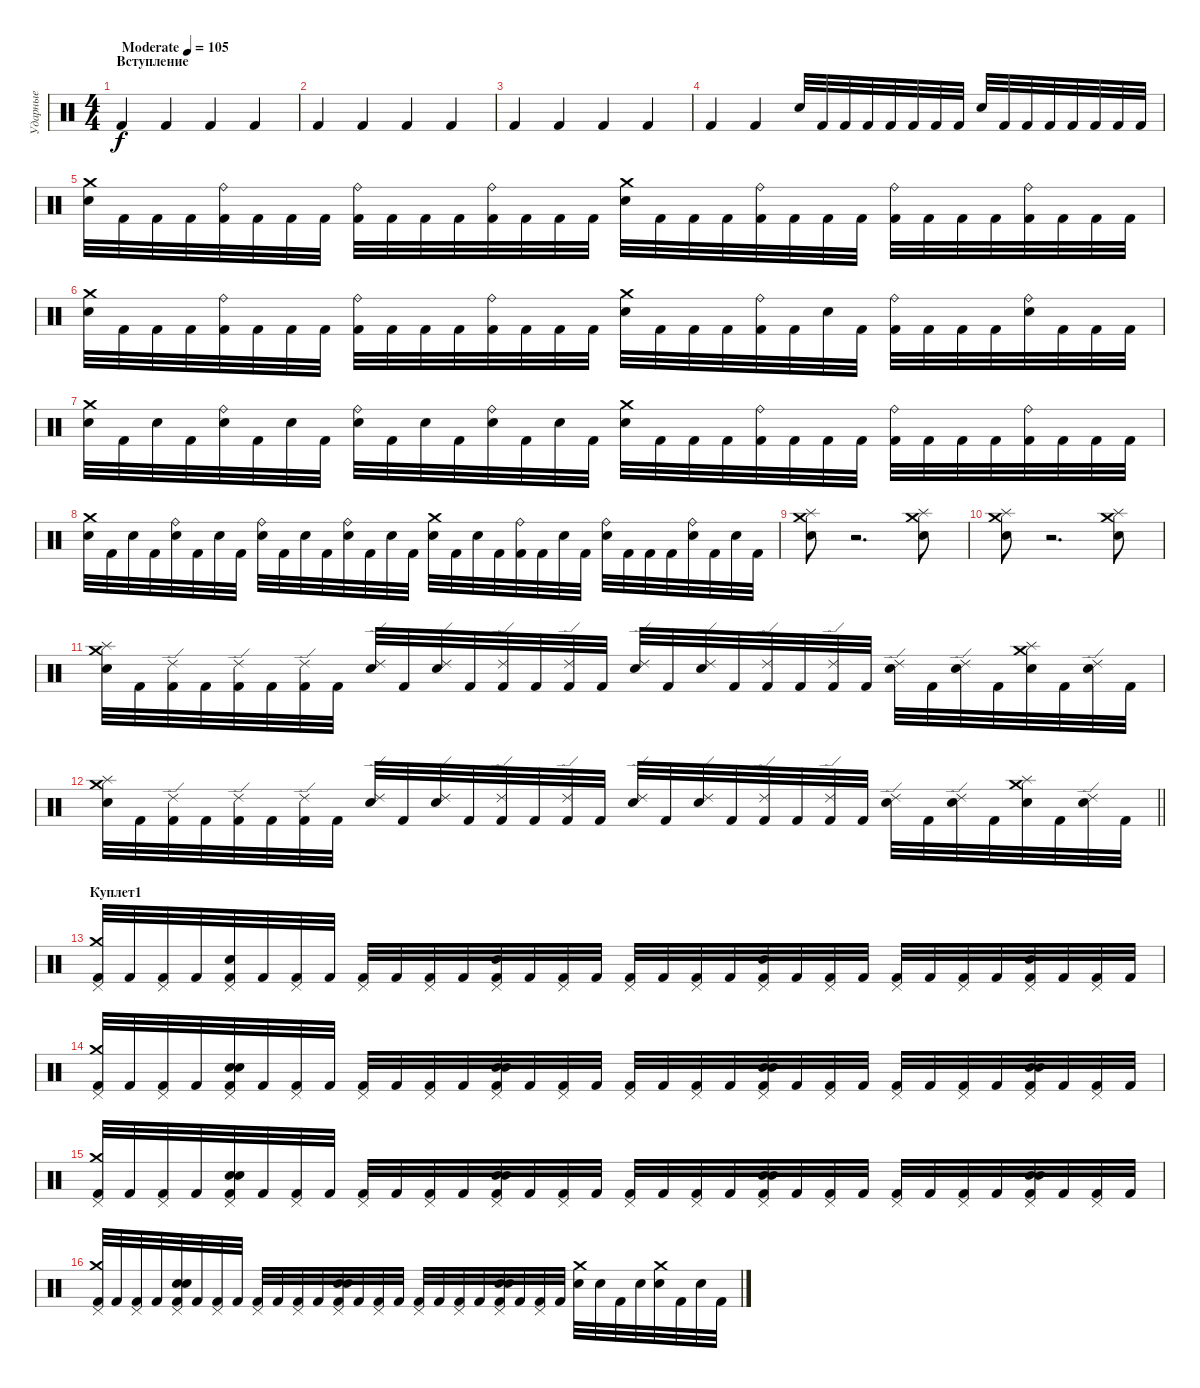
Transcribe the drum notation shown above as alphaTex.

\track ("Ударные" "Ударные") {instrument percussion}
\staff {score}
\articulation defaults
\ts (4 4)
\section ("" "Вступление")
\tempo (105 "Moderate")
\clef neutral
\ks c "Kick (hit) 2".4{dy f} "Kick (hit) 2".4 "Kick (hit) 2".4 "Kick (hit) 2".4
|
"Kick (hit) 2".4 "Kick (hit) 2".4 "Kick (hit) 2".4 "Kick (hit) 2".4 |
"Kick (hit) 2".4 "Kick (hit) 2".4 "Kick (hit) 2".4 "Kick (hit) 2".4 |
"Kick (hit) 2".4 "Kick (hit) 2".4 "Electric Snare (hit)".32 "Kick (hit) 2".32 "Kick (hit) 2".32 "Kick (hit) 2".32 "Kick (hit) 2".32 "Kick (hit) 2".32 "Kick (hit) 2".32 "Kick (hit) 2".32 "Electric Snare (hit)".32 "Kick (hit) 2".32 "Kick (hit) 2".32 "Kick (hit) 2".32 "Kick (hit) 2".32 "Kick (hit) 2".32 "Kick (hit) 2".32 "Kick (hit) 2".32 |
("Crash medium (hit)" "Electric Snare (hit)").32 "Kick (hit) 2".32 "Kick (hit) 2".32 "Kick (hit) 2".32 ("Ride (bell)" "Kick (hit) 2").32 "Kick (hit) 2".32 "Kick (hit) 2".32 "Kick (hit) 2".32 ("Ride (bell)" "Kick (hit) 2").32 "Kick (hit) 2".32 "Kick (hit) 2".32 "Kick (hit) 2".32 ("Ride (bell)" "Kick (hit) 2").32 "Kick (hit) 2".32 "Kick (hit) 2".32 "Kick (hit) 2".32 ("Crash medium (hit)" "Electric Snare (hit)").32 "Kick (hit) 2".32 "Kick (hit) 2".32 "Kick (hit) 2".32 ("Ride (bell)" "Kick (hit) 2").32 "Kick (hit) 2".32 "Kick (hit) 2".32 "Kick (hit) 2".32 ("Ride (bell)" "Kick (hit) 2").32 "Kick (hit) 2".32 "Kick (hit) 2".32 "Kick (hit) 2".32 ("Ride (bell)" "Kick (hit) 2").32 "Kick (hit) 2".32 "Kick (hit) 2".32 "Kick (hit) 2".32 |
("Crash medium (hit)" "Electric Snare (hit)").32 "Kick (hit) 2".32 "Kick (hit) 2".32 "Kick (hit) 2".32 ("Ride (bell)" "Kick (hit) 2").32 "Kick (hit) 2".32 "Kick (hit) 2".32 "Kick (hit) 2".32 ("Ride (bell)" "Kick (hit) 2").32 "Kick (hit) 2".32 "Kick (hit) 2".32 "Kick (hit) 2".32 ("Ride (bell)" "Kick (hit) 2").32 "Kick (hit) 2".32 "Kick (hit) 2".32 "Kick (hit) 2".32 ("Crash medium (hit)" "Electric Snare (hit)").32 "Kick (hit) 2".32 "Kick (hit) 2".32 "Kick (hit) 2".32 ("Ride (bell)" "Kick (hit) 2").32 "Kick (hit) 2".32 "Electric Snare (hit)".32 "Kick (hit) 2".32 ("Ride (bell)" "Kick (hit) 2").32 "Kick (hit) 2".32 "Kick (hit) 2".32 "Kick (hit) 2".32 ("Ride (bell)" "Electric Snare (hit)").32 "Kick (hit) 2".32 "Kick (hit) 2".32 "Kick (hit) 2".32 |
("Crash medium (hit)" "Electric Snare (hit)").32 "Kick (hit) 2".32 "Electric Snare (hit)".32 "Kick (hit) 2".32 ("Ride (bell)" "Electric Snare (hit)").32 "Kick (hit) 2".32 "Electric Snare (hit)".32 "Kick (hit) 2".32 ("Ride (bell)" "Electric Snare (hit)").32 "Kick (hit) 2".32 "Electric Snare (hit)".32 "Kick (hit) 2".32 ("Ride (bell)" "Electric Snare (hit)").32 "Kick (hit) 2".32 "Electric Snare (hit)".32 "Kick (hit) 2".32 ("Crash medium (hit)" "Electric Snare (hit)").32 "Kick (hit) 2".32 "Kick (hit) 2".32 "Kick (hit) 2".32 ("Ride (bell)" "Kick (hit) 2").32 "Kick (hit) 2".32 "Kick (hit) 2".32 "Kick (hit) 2".32 ("Ride (bell)" "Kick (hit) 2").32 "Kick (hit) 2".32 "Kick (hit) 2".32 "Kick (hit) 2".32 ("Ride (bell)" "Kick (hit) 2").32 "Kick (hit) 2".32 "Kick (hit) 2".32 "Kick (hit) 2".32 |
("Crash medium (hit)" "Electric Snare (hit)").32 "Kick (hit) 2".32 "Electric Snare (hit)".32 "Kick (hit) 2".32 ("Ride (bell)" "Electric Snare (hit)").32 "Kick (hit) 2".32 "Electric Snare (hit)".32 "Kick (hit) 2".32 ("Ride (bell)" "Electric Snare (hit)").32 "Kick (hit) 2".32 "Electric Snare (hit)".32 "Kick (hit) 2".32 ("Ride (bell)" "Electric Snare (hit)").32 "Kick (hit) 2".32 "Electric Snare (hit)".32 "Kick (hit) 2".32 ("Crash medium (hit)" "Electric Snare (hit)").32 "Kick (hit) 2".32 "Electric Snare (hit)".32 "Kick (hit) 2".32 ("Ride (bell)" "Kick (hit) 2").32 "Kick (hit) 2".32 "Electric Snare (hit)".32 "Kick (hit) 2".32 ("Ride (bell)" "Electric Snare (hit)").32 "Kick (hit) 2".32 "Kick (hit) 2".32 "Kick (hit) 2".32 ("Ride (bell)" "Electric Snare (hit)").32 "Kick (hit) 2".32 "Electric Snare (hit)".32 "Kick (hit) 2".32 |
("Splash (hit)" "Crash medium (hit)" "Electric Snare (hit)").8 r.2{d} ("Crash medium (hit)" "Splash (hit)" "Electric Snare (hit)").8 |
("Splash (hit)" "Crash medium (hit)" "Electric Snare (hit)").8 r.2{d} ("Crash medium (hit)" "Splash (hit)" "Electric Snare (hit)").8 |
("Splash (hit)" "Crash medium (hit)" "Electric Snare (hit)").32 "Kick (hit) 2".32 ("Kick (hit) 2" "Ride (edge) 2").32 "Kick (hit) 2".32 ("Ride (edge) 2" "Kick (hit) 2").32 "Kick (hit) 2".32 ("Kick (hit) 2" "Ride (edge) 2").32 "Kick (hit) 2".32 ("Electric Snare (hit)" "Ride (edge) 2").32 "Kick (hit) 2".32 ("Ride (edge) 2" "Electric Snare (hit)").32 "Kick (hit) 2".32 ("Kick (hit) 2" "Ride (edge) 2").32 "Kick (hit) 2".32 ("Ride (edge) 2" "Kick (hit) 2").32 "Kick (hit) 2".32 ("Ride (edge) 2" "Electric Snare (hit)").32 "Kick (hit) 2".32 ("Ride (edge) 2" "Electric Snare (hit)").32 "Kick (hit) 2".32 ("Kick (hit) 2" "Ride (edge) 2").32 "Kick (hit) 2".32 ("Kick (hit) 2" "Ride (edge) 2").32 "Kick (hit) 2".32 ("Ride (edge) 2" "Electric Snare (hit)").32 "Kick (hit) 2".32 ("Electric Snare (hit)" "Ride (edge) 2").32 "Kick (hit) 2".32 ("Crash medium (hit)" "Electric Snare (hit)" "Splash (hit)").32 "Kick (hit) 2".32 ("Electric Snare (hit)" "Ride (edge) 2").32 "Kick (hit) 2".32 |
\barLineRight lightlight
("Splash (hit)" "Crash medium (hit)" "Electric Snare (hit)").32 "Kick (hit) 2".32 ("Ride (edge) 2" "Kick (hit) 2").32 "Kick (hit) 2".32 ("Ride (edge) 2" "Kick (hit) 2").32 "Kick (hit) 2".32 ("Ride (edge) 2" "Kick (hit) 2").32 "Kick (hit) 2".32 ("Ride (edge) 2" "Electric Snare (hit)").32 "Kick (hit) 2".32 ("Ride (edge) 2" "Electric Snare (hit)").32 "Kick (hit) 2".32 ("Ride (edge) 2" "Kick (hit) 2").32 "Kick (hit) 2".32 ("Ride (edge) 2" "Kick (hit) 2").32 "Kick (hit) 2".32 ("Ride (edge) 2" "Electric Snare (hit)").32 "Kick (hit) 2".32 ("Ride (edge) 2" "Electric Snare (hit)").32 "Kick (hit) 2".32 ("Ride (edge) 2" "Kick (hit) 2").32 "Kick (hit) 2".32 ("Ride (edge) 2" "Kick (hit) 2").32 "Kick (hit) 2".32 ("Ride (edge) 2" "Electric Snare (hit)").32 "Kick (hit) 2".32 ("Ride (edge) 2" "Electric Snare (hit)").32 "Kick (hit) 2".32 ("Crash medium (hit)" "Splash (hit)" "Electric Snare (hit)").32 "Kick (hit) 2".32 ("Ride (edge) 2" "Electric Snare (hit)").32 "Kick (hit) 2".32 |
\section ("" "Куплет1")
("Crash medium (hit)" "Pedal Hi-Hat (hit)" "Kick (hit) 2").32 "Kick (hit) 2".32 ("Pedal Hi-Hat (hit)" "Kick (hit) 2").32 "Kick (hit) 2".32 ("Pedal Hi-Hat (hit)" "Kick (hit) 2" "Electric Snare (hit)").32 "Kick (hit) 2".32 ("Pedal Hi-Hat (hit)" "Kick (hit) 2").32 "Kick (hit) 2".32 ("Kick (hit) 2" "Pedal Hi-Hat (hit)").32 "Kick (hit) 2".32 ("Kick (hit) 2" "Pedal Hi-Hat (hit)").32 "Kick (hit) 2".32 ("Kick (hit) 2" "Electric Snare (hit)" "Pedal Hi-Hat (hit)").32 "Kick (hit) 2".32 ("Kick (hit) 2" "Pedal Hi-Hat (hit)").32 "Kick (hit) 2".32 ("Kick (hit) 2" "Pedal Hi-Hat (hit)").32 "Kick (hit) 2".32 ("Kick (hit) 2" "Pedal Hi-Hat (hit)").32 "Kick (hit) 2".32 ("Kick (hit) 2" "Electric Snare (hit)" "Pedal Hi-Hat (hit)").32 "Kick (hit) 2".32 ("Kick (hit) 2" "Pedal Hi-Hat (hit)").32 "Kick (hit) 2".32 ("Kick (hit) 2" "Pedal Hi-Hat (hit)").32 "Kick (hit) 2".32 ("Kick (hit) 2" "Pedal Hi-Hat (hit)").32 "Kick (hit) 2".32 ("Kick (hit) 2" "Electric Snare (hit)" "Pedal Hi-Hat (hit)").32 "Kick (hit) 2".32 ("Kick (hit) 2" "Pedal Hi-Hat (hit)").32 "Kick (hit) 2".32 |
("Kick (hit) 2" "Crash medium (hit)" "Pedal Hi-Hat (hit)").32 "Kick (hit) 2".32 ("Kick (hit) 2" "Pedal Hi-Hat (hit)").32 "Kick (hit) 2".32 ("Kick (hit) 2" "Electric Snare (hit)" "Pedal Hi-Hat (hit)" "Electric Snare (hit)").32 "Kick (hit) 2".32 ("Kick (hit) 2" "Pedal Hi-Hat (hit)").32 "Kick (hit) 2".32 ("Kick (hit) 2" "Pedal Hi-Hat (hit)").32 "Kick (hit) 2".32 ("Kick (hit) 2" "Pedal Hi-Hat (hit)").32 "Kick (hit) 2".32 ("Kick (hit) 2" "Electric Snare (hit)" "Electric Snare (hit)" "Pedal Hi-Hat (hit)").32 "Kick (hit) 2".32 ("Kick (hit) 2" "Pedal Hi-Hat (hit)").32 "Kick (hit) 2".32 ("Kick (hit) 2" "Pedal Hi-Hat (hit)").32 "Kick (hit) 2".32 ("Kick (hit) 2" "Pedal Hi-Hat (hit)").32 "Kick (hit) 2".32 ("Kick (hit) 2" "Electric Snare (hit)" "Electric Snare (hit)" "Pedal Hi-Hat (hit)").32 "Kick (hit) 2".32 ("Kick (hit) 2" "Pedal Hi-Hat (hit)").32 "Kick (hit) 2".32 ("Kick (hit) 2" "Pedal Hi-Hat (hit)").32 "Kick (hit) 2".32 ("Kick (hit) 2" "Pedal Hi-Hat (hit)").32 "Kick (hit) 2".32 ("Kick (hit) 2" "Electric Snare (hit)" "Electric Snare (hit)" "Pedal Hi-Hat (hit)").32 "Kick (hit) 2".32 ("Kick (hit) 2" "Pedal Hi-Hat (hit)").32 "Kick (hit) 2".32 |
("Crash medium (hit)" "Pedal Hi-Hat (hit)" "Kick (hit) 2").32 "Kick (hit) 2".32 ("Pedal Hi-Hat (hit)" "Kick (hit) 2").32 "Kick (hit) 2".32 ("Pedal Hi-Hat (hit)" "Electric Snare (hit)" "Kick (hit) 2" "Electric Snare (hit)").32 "Kick (hit) 2".32 ("Pedal Hi-Hat (hit)" "Kick (hit) 2").32 "Kick (hit) 2".32 ("Kick (hit) 2" "Pedal Hi-Hat (hit)").32 "Kick (hit) 2".32 ("Kick (hit) 2" "Pedal Hi-Hat (hit)").32 "Kick (hit) 2".32 ("Electric Snare (hit)" "Kick (hit) 2" "Electric Snare (hit)" "Pedal Hi-Hat (hit)").32 "Kick (hit) 2".32 ("Kick (hit) 2" "Pedal Hi-Hat (hit)").32 "Kick (hit) 2".32 ("Kick (hit) 2" "Pedal Hi-Hat (hit)").32 "Kick (hit) 2".32 ("Kick (hit) 2" "Pedal Hi-Hat (hit)").32 "Kick (hit) 2".32 ("Electric Snare (hit)" "Kick (hit) 2" "Electric Snare (hit)" "Pedal Hi-Hat (hit)").32 "Kick (hit) 2".32 ("Kick (hit) 2" "Pedal Hi-Hat (hit)").32 "Kick (hit) 2".32 ("Kick (hit) 2" "Pedal Hi-Hat (hit)").32 "Kick (hit) 2".32 ("Kick (hit) 2" "Pedal Hi-Hat (hit)").32 "Kick (hit) 2".32 ("Electric Snare (hit)" "Kick (hit) 2" "Electric Snare (hit)" "Pedal Hi-Hat (hit)").32 "Kick (hit) 2".32 ("Kick (hit) 2" "Pedal Hi-Hat (hit)").32 "Kick (hit) 2".32 |
("Kick (hit) 2" "Crash medium (hit)" "Pedal Hi-Hat (hit)").32 "Kick (hit) 2".32 ("Kick (hit) 2" "Pedal Hi-Hat (hit)").32 "Kick (hit) 2".32 ("Kick (hit) 2" "Electric Snare (hit)" "Pedal Hi-Hat (hit)" "Electric Snare (hit)").32 "Kick (hit) 2".32 ("Kick (hit) 2" "Pedal Hi-Hat (hit)").32 "Kick (hit) 2".32 ("Kick (hit) 2" "Pedal Hi-Hat (hit)").32 "Kick (hit) 2".32 ("Kick (hit) 2" "Pedal Hi-Hat (hit)").32 "Kick (hit) 2".32 ("Kick (hit) 2" "Electric Snare (hit)" "Electric Snare (hit)" "Pedal Hi-Hat (hit)").32 "Kick (hit) 2".32 ("Kick (hit) 2" "Pedal Hi-Hat (hit)").32 "Kick (hit) 2".32 ("Kick (hit) 2" "Pedal Hi-Hat (hit)").32 "Kick (hit) 2".32 ("Kick (hit) 2" "Pedal Hi-Hat (hit)").32 "Kick (hit) 2".32 ("Kick (hit) 2" "Electric Snare (hit)" "Electric Snare (hit)" "Pedal Hi-Hat (hit)").32 "Kick (hit) 2".32 ("Kick (hit) 2" "Pedal Hi-Hat (hit)").32 "Kick (hit) 2".32 ("Crash medium (hit)" "Electric Snare (hit)").32 "Electric Snare (hit)".32 "Kick (hit) 2".32 "Electric Snare (hit)".32 ("Crash medium (hit)" "Electric Snare (hit)").32 "Kick (hit) 2".32 "Electric Snare (hit)".32 "Kick (hit) 2".32
